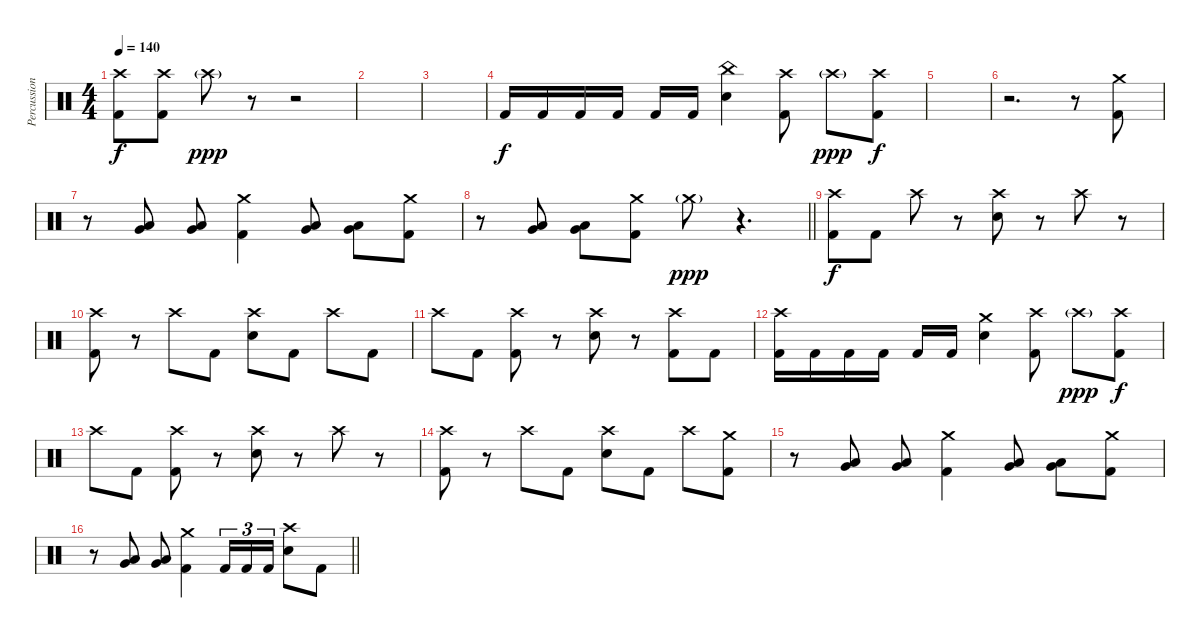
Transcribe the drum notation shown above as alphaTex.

\track ("Percussion" "Percussion") {instrument percussion}
\staff {score}
\articulation defaults
\ts (4 4)
\section ("" "")
\tempo 140
\clef neutral
\ks c
("Crash high (hit)" "Kick (hit) 2").8{dy f} ("Crash high (hit)" "Kick (hit) 2").8 "Crash high (hit)"{g}.8{dy ppp} r.8 r.2 |
|
|
"Kick (hit) 2".16{dy f} "Kick (hit) 2".16 "Kick (hit) 2".16 "Kick (hit) 2".16 "Kick (hit) 2".16 "Kick (hit) 2".16 ("China (hit)" "Snare (hit) 2").4 ("Crash high (hit)" "Kick (hit) 2").8 "Crash high (hit)"{g}.8{dy ppp} ("Crash high (hit)" "Kick (hit) 2").8{dy f} |
|
r.2{d} r.8 ("Crash medium (hit)" "Kick (hit) 2").8 |
r.8 ("Low Tom (hit)" "Very Low Tom (hit)").8 ("Low Tom (hit)" "Very Low Tom (hit)").8 ("Crash medium (hit)" "Kick (hit) 2").4 ("Low Tom (hit)" "Very Low Tom (hit)").8 ("Low Tom (hit)" "Very Low Tom (hit)").8 ("Crash medium (hit)" "Kick (hit) 2").8 |
\barLineRight lightlight
r.8 ("Low Tom (hit)" "Very Low Tom (hit)").8 ("Low Tom (hit)" "Very Low Tom (hit)").8 ("Crash medium (hit)" "Kick (hit) 2").8 "Crash medium (hit)"{g}.8{dy ppp} r.4{d} |
\section ("" "")
("Crash high (hit)" "Kick (hit) 2").8{dy f} "Kick (hit) 2".8 "Crash high (hit)".8 r.8 ("Crash high (hit)" "Snare (hit) 2").8 r.8 "Crash high (hit)".8 r.8 |
("Crash high (hit)" "Kick (hit) 2").8 r.8 "Crash high (hit)".8 "Kick (hit) 2".8 ("Crash high (hit)" "Snare (hit) 2").8 "Kick (hit) 2".8 "Crash high (hit)".8 "Kick (hit) 2".8 |
"Crash high (hit)".8 "Kick (hit) 2".8 ("Crash high (hit)" "Kick (hit) 2").8 r.8 ("Crash high (hit)" "Snare (hit) 2").8 r.8 ("Crash high (hit)" "Kick (hit) 2").8 "Kick (hit) 2".8 |
("Crash high (hit)" "Kick (hit) 2").16 "Kick (hit) 2".16 "Kick (hit) 2".16 "Kick (hit) 2".16 "Kick (hit) 2".16 "Kick (hit) 2".16 ("Crash medium (hit)" "Snare (hit) 2").4 ("Crash high (hit)" "Kick (hit) 2").8 "Crash high (hit)"{g}.8{dy ppp} ("Crash high (hit)" "Kick (hit) 2").8{dy f} |
"Crash high (hit)".8 "Kick (hit) 2".8 ("Crash high (hit)" "Kick (hit) 2").8 r.8 ("Crash high (hit)" "Snare (hit) 2").8 r.8 "Crash high (hit)".8 r.8 |
("Crash high (hit)" "Kick (hit) 2").8 r.8 "Crash high (hit)".8 "Kick (hit) 2".8 ("Crash high (hit)" "Snare (hit) 2").8 "Kick (hit) 2".8 "Crash high (hit)".8 ("Crash medium (hit)" "Kick (hit) 2").8 |
r.8 ("Low Tom (hit)" "Very Low Tom (hit)").8 ("Low Tom (hit)" "Very Low Tom (hit)").8 ("Crash medium (hit)" "Kick (hit) 2").4 ("Low Tom (hit)" "Very Low Tom (hit)").8 ("Low Tom (hit)" "Very Low Tom (hit)").8 ("Crash medium (hit)" "Kick (hit) 2").8 |
\barLineRight lightlight
r.8 ("Low Tom (hit)" "Very Low Tom (hit)").8 ("Low Tom (hit)" "Very Low Tom (hit)").8 ("Crash medium (hit)" "Kick (hit) 2").4 "Kick (hit) 2".16{tu (3 2)} "Kick (hit) 2".16{tu (3 2)} "Kick (hit) 2".16{tu (3 2)} ("Crash high (hit)" "Snare (hit) 2").8 "Kick (hit) 2".8
